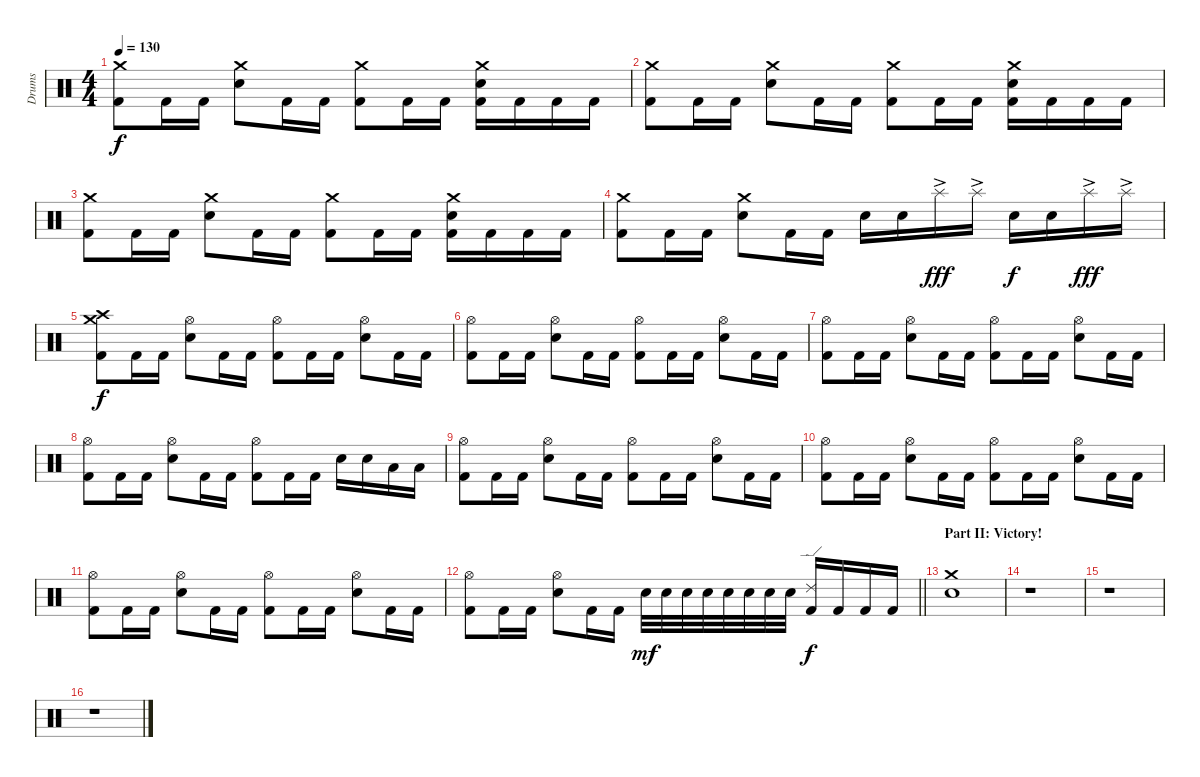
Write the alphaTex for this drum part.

\track ("Drums" "Drums") {instrument percussion}
\staff {score}
\articulation defaults
\ts (4 4)
\tempo 130
\clef neutral
\ks c
("Crash medium (hit)" "Kick (hit) 2").8{dy f} "Kick (hit) 2".16 "Kick (hit) 2".16 ("Crash medium (hit)" "Snare (hit) 2").8 "Kick (hit) 2".16 "Kick (hit) 2".16 ("Crash medium (hit)" "Kick (hit) 2").8 "Kick (hit) 2".16 "Kick (hit) 2".16 ("Crash medium (hit)" "Snare (hit) 2" "Kick (hit) 2").16 "Kick (hit) 2".16 "Kick (hit) 2".16 "Kick (hit) 2".16 |
("Crash medium (hit)" "Kick (hit) 2").8 "Kick (hit) 2".16 "Kick (hit) 2".16 ("Crash medium (hit)" "Snare (hit) 2").8 "Kick (hit) 2".16 "Kick (hit) 2".16 ("Crash medium (hit)" "Kick (hit) 2").8 "Kick (hit) 2".16 "Kick (hit) 2".16 ("Crash medium (hit)" "Snare (hit) 2" "Kick (hit) 2").16 "Kick (hit) 2".16 "Kick (hit) 2".16 "Kick (hit) 2".16 |
("Crash medium (hit)" "Kick (hit) 2").8 "Kick (hit) 2".16 "Kick (hit) 2".16 ("Crash medium (hit)" "Snare (hit) 2").8 "Kick (hit) 2".16 "Kick (hit) 2".16 ("Crash medium (hit)" "Kick (hit) 2").8 "Kick (hit) 2".16 "Kick (hit) 2".16 ("Crash medium (hit)" "Snare (hit) 2" "Kick (hit) 2").16 "Kick (hit) 2".16 "Kick (hit) 2".16 "Kick (hit) 2".16 |
("Crash medium (hit)" "Kick (hit) 2").8 "Kick (hit) 2".16 "Kick (hit) 2".16 ("Crash medium (hit)" "Snare (hit) 2").8 "Kick (hit) 2".16 "Kick (hit) 2".16 "Snare (hit) 2".16 "Snare (hit) 2".16 "Splash (hit)"{ac}.16{dy fff} "Splash (hit)"{ac}.16 "Snare (hit) 2".16{dy f} "Snare (hit) 2".16 "Splash (hit)"{ac}.16{dy fff} "Splash (hit)"{ac}.16 |
("Crash high (hit)" "Crash medium (hit)" "Kick (hit) 2").8{dy f} "Kick (hit) 2".16 "Kick (hit) 2".16 ("Hi-Hat (open)" "Snare (hit) 2").8 "Kick (hit) 2".16 "Kick (hit) 2".16 ("Hi-Hat (open)" "Kick (hit) 2").8 "Kick (hit) 2".16 "Kick (hit) 2".16 ("Hi-Hat (open)" "Snare (hit) 2").8 "Kick (hit) 2".16 "Kick (hit) 2".16 |
("Hi-Hat (open)" "Kick (hit) 2").8 "Kick (hit) 2".16 "Kick (hit) 2".16 ("Hi-Hat (open)" "Snare (hit) 2").8 "Kick (hit) 2".16 "Kick (hit) 2".16 ("Hi-Hat (open)" "Kick (hit) 2").8 "Kick (hit) 2".16 "Kick (hit) 2".16 ("Hi-Hat (open)" "Snare (hit) 2").8 "Kick (hit) 2".16 "Kick (hit) 2".16 |
("Hi-Hat (open)" "Kick (hit) 2").8 "Kick (hit) 2".16 "Kick (hit) 2".16 ("Hi-Hat (open)" "Snare (hit) 2").8 "Kick (hit) 2".16 "Kick (hit) 2".16 ("Hi-Hat (open)" "Kick (hit) 2").8 "Kick (hit) 2".16 "Kick (hit) 2".16 ("Hi-Hat (open)" "Snare (hit) 2").8 "Kick (hit) 2".16 "Kick (hit) 2".16 |
("Hi-Hat (open)" "Kick (hit) 2").8 "Kick (hit) 2".16 "Kick (hit) 2".16 ("Hi-Hat (open)" "Snare (hit) 2").8 "Kick (hit) 2".16 "Kick (hit) 2".16 ("Hi-Hat (open)" "Kick (hit) 2").8 "Kick (hit) 2".16 "Kick (hit) 2".16 "Snare (hit) 2".16 "Snare (hit) 2".16 "Low Tom (hit)".16 "Low Tom (hit)".16 |
("Hi-Hat (open)" "Kick (hit) 2").8 "Kick (hit) 2".16 "Kick (hit) 2".16 ("Hi-Hat (open)" "Snare (hit) 2").8 "Kick (hit) 2".16 "Kick (hit) 2".16 ("Hi-Hat (open)" "Kick (hit) 2").8 "Kick (hit) 2".16 "Kick (hit) 2".16 ("Hi-Hat (open)" "Snare (hit) 2").8 "Kick (hit) 2".16 "Kick (hit) 2".16 |
("Hi-Hat (open)" "Kick (hit) 2").8 "Kick (hit) 2".16 "Kick (hit) 2".16 ("Hi-Hat (open)" "Snare (hit) 2").8 "Kick (hit) 2".16 "Kick (hit) 2".16 ("Hi-Hat (open)" "Kick (hit) 2").8 "Kick (hit) 2".16 "Kick (hit) 2".16 ("Hi-Hat (open)" "Snare (hit) 2").8 "Kick (hit) 2".16 "Kick (hit) 2".16 |
("Hi-Hat (open)" "Kick (hit) 2").8 "Kick (hit) 2".16 "Kick (hit) 2".16 ("Hi-Hat (open)" "Snare (hit) 2").8 "Kick (hit) 2".16 "Kick (hit) 2".16 ("Hi-Hat (open)" "Kick (hit) 2").8 "Kick (hit) 2".16 "Kick (hit) 2".16 ("Hi-Hat (open)" "Snare (hit) 2").8 "Kick (hit) 2".16 "Kick (hit) 2".16 |
\barLineRight lightlight
("Hi-Hat (open)" "Kick (hit) 2").8 "Kick (hit) 2".16 "Kick (hit) 2".16 ("Hi-Hat (open)" "Snare (hit) 2").8 "Kick (hit) 2".16 "Kick (hit) 2".16 "Snare (hit) 2".32{dy mf} "Snare (hit) 2".32 "Snare (hit) 2".32 "Snare (hit) 2".32 "Snare (hit) 2".32 "Snare (hit) 2".32 "Snare (hit) 2".32 "Snare (hit) 2".32 ("Ride (edge) 2" "Kick (hit) 2").16{dy f} "Kick (hit) 2".16 "Kick (hit) 2".16 "Kick (hit) 2".16 |
\section ("" "Part II: Victory! ")
("Crash medium (hit)" "Snare (hit) 2").1 |
r.1 |
r.1 |
r.1
